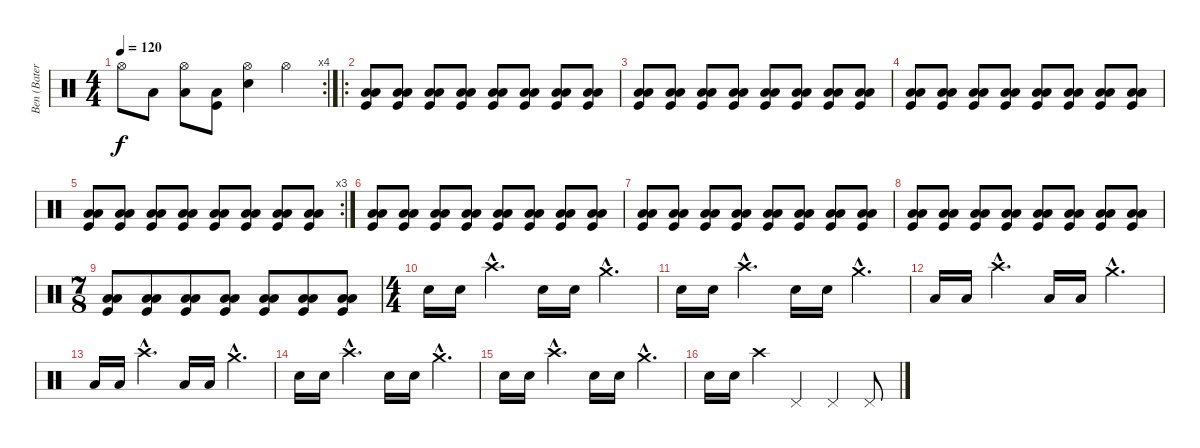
\track ("Ben (Bateria)" "Ben (Bater") {instrument percussion}
\staff {score}
\articulation defaults
\rc 4
\ts (4 4)
\tempo 120
\clef neutral
\ks c "Hi-Hat (open)".8{dy f} "Low Floor Tom (hit)".8
("Low Floor Tom (hit)" "Hi-Hat (open)").8 ("Kick (hit)" "Low Floor Tom (hit)").8 ("Snare (hit) 2" "Hi-Hat (open)").4 "Hi-Hat (open)".4 |
\ro
("Kick (hit)" "Low Floor Tom (hit)" "Low Floor Tom (hit)").8 ("Kick (hit)" "Low Floor Tom (hit)" "Low Floor Tom (hit)").8 ("Kick (hit)" "Low Floor Tom (hit)" "Low Floor Tom (hit)").8 ("Kick (hit)" "Low Floor Tom (hit)" "Low Floor Tom (hit)").8 ("Kick (hit)" "Low Floor Tom (hit)" "Low Floor Tom (hit)").8 ("Kick (hit)" "Low Floor Tom (hit)" "Low Floor Tom (hit)").8 ("Kick (hit)" "Low Floor Tom (hit)" "Low Floor Tom (hit)").8 ("Kick (hit)" "Low Floor Tom (hit)" "Low Floor Tom (hit)").8 |
("Kick (hit)" "Low Floor Tom (hit)" "Low Floor Tom (hit)").8 ("Kick (hit)" "Low Floor Tom (hit)" "Low Floor Tom (hit)").8 ("Kick (hit)" "Low Floor Tom (hit)" "Low Floor Tom (hit)").8 ("Kick (hit)" "Low Floor Tom (hit)" "Low Floor Tom (hit)").8 ("Kick (hit)" "Low Floor Tom (hit)" "Low Floor Tom (hit)").8 ("Kick (hit)" "Low Floor Tom (hit)" "Low Floor Tom (hit)").8 ("Kick (hit)" "Low Floor Tom (hit)" "Low Floor Tom (hit)").8 ("Kick (hit)" "Low Floor Tom (hit)" "Low Floor Tom (hit)").8 |
("Kick (hit)" "Low Floor Tom (hit)" "Low Floor Tom (hit)").8 ("Kick (hit)" "Low Floor Tom (hit)" "Low Floor Tom (hit)").8 ("Kick (hit)" "Low Floor Tom (hit)" "Low Floor Tom (hit)").8 ("Kick (hit)" "Low Floor Tom (hit)" "Low Floor Tom (hit)").8 ("Kick (hit)" "Low Floor Tom (hit)" "Low Floor Tom (hit)").8 ("Kick (hit)" "Low Floor Tom (hit)" "Low Floor Tom (hit)").8 ("Kick (hit)" "Low Floor Tom (hit)" "Low Floor Tom (hit)").8 ("Kick (hit)" "Low Floor Tom (hit)" "Low Floor Tom (hit)").8 |
\rc 3
("Kick (hit)" "Low Floor Tom (hit)" "Low Floor Tom (hit)").8 ("Kick (hit)" "Low Floor Tom (hit)" "Low Floor Tom (hit)").8 ("Kick (hit)" "Low Floor Tom (hit)" "Low Floor Tom (hit)").8 ("Kick (hit)" "Low Floor Tom (hit)" "Low Floor Tom (hit)").8 ("Kick (hit)" "Low Floor Tom (hit)" "Low Floor Tom (hit)").8 ("Kick (hit)" "Low Floor Tom (hit)" "Low Floor Tom (hit)").8 ("Kick (hit)" "Low Floor Tom (hit)" "Low Floor Tom (hit)").8 ("Kick (hit)" "Low Floor Tom (hit)" "Low Floor Tom (hit)").8 |
("Kick (hit)" "Low Floor Tom (hit)" "Low Floor Tom (hit)").8 ("Kick (hit)" "Low Floor Tom (hit)" "Low Floor Tom (hit)").8 ("Kick (hit)" "Low Floor Tom (hit)" "Low Floor Tom (hit)").8 ("Kick (hit)" "Low Floor Tom (hit)" "Low Floor Tom (hit)").8 ("Kick (hit)" "Low Floor Tom (hit)" "Low Floor Tom (hit)").8 ("Kick (hit)" "Low Floor Tom (hit)" "Low Floor Tom (hit)").8 ("Kick (hit)" "Low Floor Tom (hit)" "Low Floor Tom (hit)").8 ("Kick (hit)" "Low Floor Tom (hit)" "Low Floor Tom (hit)").8 |
("Kick (hit)" "Low Floor Tom (hit)" "Low Floor Tom (hit)").8 ("Kick (hit)" "Low Floor Tom (hit)" "Low Floor Tom (hit)").8 ("Kick (hit)" "Low Floor Tom (hit)" "Low Floor Tom (hit)").8 ("Kick (hit)" "Low Floor Tom (hit)" "Low Floor Tom (hit)").8 ("Kick (hit)" "Low Floor Tom (hit)" "Low Floor Tom (hit)").8 ("Kick (hit)" "Low Floor Tom (hit)" "Low Floor Tom (hit)").8 ("Kick (hit)" "Low Floor Tom (hit)" "Low Floor Tom (hit)").8 ("Kick (hit)" "Low Floor Tom (hit)" "Low Floor Tom (hit)").8 |
("Kick (hit)" "Low Floor Tom (hit)" "Low Floor Tom (hit)").8 ("Kick (hit)" "Low Floor Tom (hit)" "Low Floor Tom (hit)").8 ("Kick (hit)" "Low Floor Tom (hit)" "Low Floor Tom (hit)").8 ("Kick (hit)" "Low Floor Tom (hit)" "Low Floor Tom (hit)").8 ("Kick (hit)" "Low Floor Tom (hit)" "Low Floor Tom (hit)").8 ("Kick (hit)" "Low Floor Tom (hit)" "Low Floor Tom (hit)").8 ("Kick (hit)" "Low Floor Tom (hit)" "Low Floor Tom (hit)").8 ("Kick (hit)" "Low Floor Tom (hit)" "Low Floor Tom (hit)").8 |
\ts (7 8)
("Kick (hit)" "Low Floor Tom (hit)" "Low Floor Tom (hit)").8 ("Kick (hit)" "Low Floor Tom (hit)" "Low Floor Tom (hit)").8 ("Kick (hit)" "Low Floor Tom (hit)" "Low Floor Tom (hit)").8 ("Kick (hit)" "Low Floor Tom (hit)" "Low Floor Tom (hit)").8 ("Kick (hit)" "Low Floor Tom (hit)" "Low Floor Tom (hit)").8 ("Kick (hit)" "Low Floor Tom (hit)" "Low Floor Tom (hit)").8 ("Kick (hit)" "Low Floor Tom (hit)" "Low Floor Tom (hit)").8 |
\ts (4 4)
"Snare (hit) 2".16 "Snare (hit) 2".16 "Crash high (hit)"{hac}.4{d} "Snare (hit) 2".16 "Snare (hit) 2".16 "Crash medium (hit)"{hac}.4{d} |
"Snare (hit) 2".16 "Snare (hit) 2".16 "Crash high (hit)"{hac}.4{d} "Snare (hit) 2".16 "Snare (hit) 2".16 "Crash medium (hit)"{hac}.4{d} |
"Low Floor Tom (hit)".16 "Low Floor Tom (hit)".16 "Crash high (hit)"{hac}.4{d} "Low Floor Tom (hit)".16 "Low Floor Tom (hit)".16 "Crash medium (hit)"{hac}.4{d} |
"Low Floor Tom (hit)".16 "Low Floor Tom (hit)".16 "Crash high (hit)"{hac}.4{d} "Low Floor Tom (hit)".16 "Low Floor Tom (hit)".16 "Crash medium (hit)"{hac}.4{d} |
"Snare (hit) 2".16 "Snare (hit) 2".16 "Crash high (hit)"{hac}.4{d} "Snare (hit) 2".16 "Snare (hit) 2".16 "Crash medium (hit)"{hac}.4{d} |
"Snare (hit) 2".16 "Snare (hit) 2".16 "Crash high (hit)"{hac}.4{d} "Snare (hit) 2".16 "Snare (hit) 2".16 "Crash medium (hit)"{hac}.4{d} |
"Snare (hit) 2".16 "Snare (hit) 2".16 "Crash high (hit)".4 "Pedal Hi-Hat (hit)".4 "Pedal Hi-Hat (hit)".4 "Pedal Hi-Hat (hit)".8
